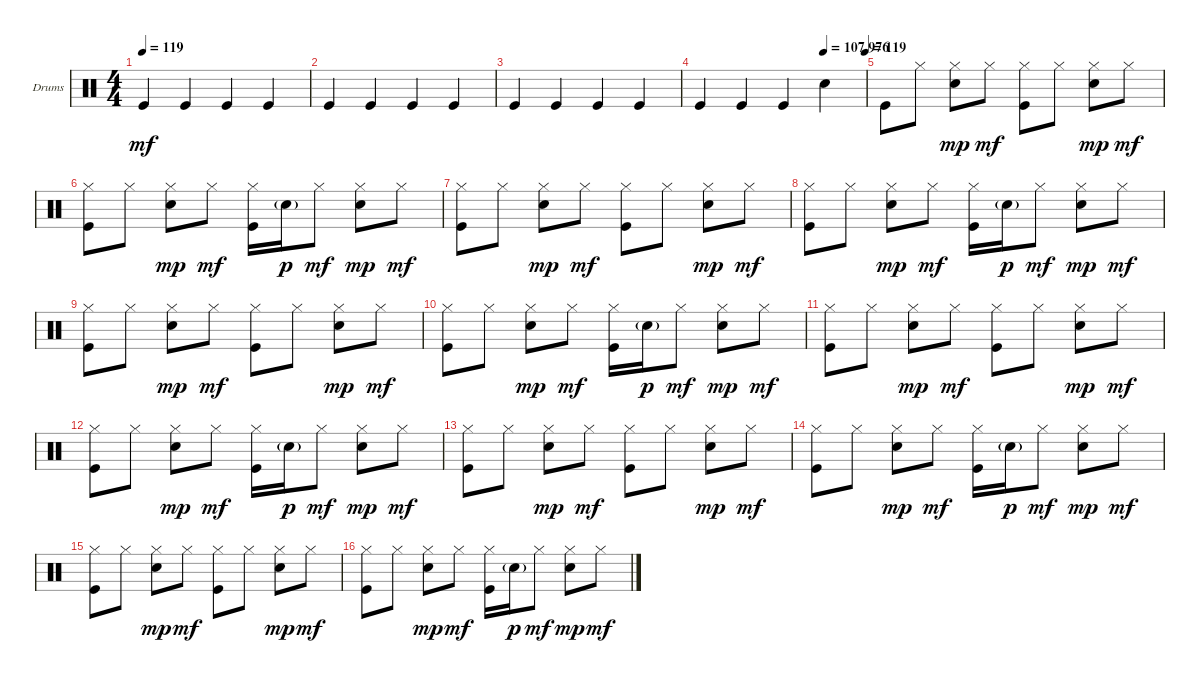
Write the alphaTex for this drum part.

\defaultSystemsLayout 4
\bracketExtendMode groupsimilarinstruments
\firstSystemTrackNameOrientation horizontal
\otherSystemsTrackNameOrientation horizontal
\track ("Drumkit" "Drums") {instrument percussion}
\staff {score}
\articulation defaults
\ts (4 4)
\tempo 119
\clef neutral
\ks c "Kick (hit)".4{dy mf} "Kick (hit)".4 "Kick (hit)".4 "Kick (hit)".4
|
"Kick (hit)".4 "Kick (hit)".4 "Kick (hit)".4 "Kick (hit)".4 |
"Kick (hit)".4 "Kick (hit)".4 "Kick (hit)".4 "Kick (hit)".4 |
\tempo (107.976 0.75)
\tempo (119 1)
"Kick (hit)".4 "Kick (hit)".4 "Kick (hit)".4 "Snare (hit) 2".4 |
"Kick (hit)".8 "Hi-Hat (closed)".8 ("Hi-Hat (closed)" "Snare (hit) 2").8{dy mp} "Hi-Hat (closed)".8{dy mf} ("Hi-Hat (closed)" "Kick (hit)").8 "Hi-Hat (closed)".8 ("Hi-Hat (closed)" "Snare (hit) 2").8{dy mp} "Hi-Hat (closed)".8{dy mf} |
("Kick (hit)" "Hi-Hat (closed)").8 "Hi-Hat (closed)".8 ("Hi-Hat (closed)" "Snare (hit) 2").8{dy mp} "Hi-Hat (closed)".8{dy mf} ("Hi-Hat (closed)" "Kick (hit)").16 "Snare (hit) 2"{g}.16{dy p} "Hi-Hat (closed)".8{dy mf} ("Hi-Hat (closed)" "Snare (hit) 2").8{dy mp} "Hi-Hat (closed)".8{dy mf} |
("Kick (hit)" "Hi-Hat (closed)").8 "Hi-Hat (closed)".8 ("Hi-Hat (closed)" "Snare (hit) 2").8{dy mp} "Hi-Hat (closed)".8{dy mf} ("Hi-Hat (closed)" "Kick (hit)").8 "Hi-Hat (closed)".8 ("Hi-Hat (closed)" "Snare (hit) 2").8{dy mp} "Hi-Hat (closed)".8{dy mf} |
("Kick (hit)" "Hi-Hat (closed)").8 "Hi-Hat (closed)".8 ("Hi-Hat (closed)" "Snare (hit) 2").8{dy mp} "Hi-Hat (closed)".8{dy mf} ("Hi-Hat (closed)" "Kick (hit)").16 "Snare (hit) 2"{g}.16{dy p} "Hi-Hat (closed)".8{dy mf} ("Hi-Hat (closed)" "Snare (hit) 2").8{dy mp} "Hi-Hat (closed)".8{dy mf} |
("Kick (hit)" "Hi-Hat (closed)").8 "Hi-Hat (closed)".8 ("Hi-Hat (closed)" "Snare (hit) 2").8{dy mp} "Hi-Hat (closed)".8{dy mf} ("Hi-Hat (closed)" "Kick (hit)").8 "Hi-Hat (closed)".8 ("Hi-Hat (closed)" "Snare (hit) 2").8{dy mp} "Hi-Hat (closed)".8{dy mf} |
("Kick (hit)" "Hi-Hat (closed)").8 "Hi-Hat (closed)".8 ("Hi-Hat (closed)" "Snare (hit) 2").8{dy mp} "Hi-Hat (closed)".8{dy mf} ("Hi-Hat (closed)" "Kick (hit)").16 "Snare (hit) 2"{g}.16{dy p} "Hi-Hat (closed)".8{dy mf} ("Hi-Hat (closed)" "Snare (hit) 2").8{dy mp} "Hi-Hat (closed)".8{dy mf} |
("Kick (hit)" "Hi-Hat (closed)").8 "Hi-Hat (closed)".8 ("Hi-Hat (closed)" "Snare (hit) 2").8{dy mp} "Hi-Hat (closed)".8{dy mf} ("Hi-Hat (closed)" "Kick (hit)").8 "Hi-Hat (closed)".8 ("Hi-Hat (closed)" "Snare (hit) 2").8{dy mp} "Hi-Hat (closed)".8{dy mf} |
("Kick (hit)" "Hi-Hat (closed)").8 "Hi-Hat (closed)".8 ("Hi-Hat (closed)" "Snare (hit) 2").8{dy mp} "Hi-Hat (closed)".8{dy mf} ("Hi-Hat (closed)" "Kick (hit)").16 "Snare (hit) 2"{g}.16{dy p} "Hi-Hat (closed)".8{dy mf} ("Hi-Hat (closed)" "Snare (hit) 2").8{dy mp} "Hi-Hat (closed)".8{dy mf} |
("Kick (hit)" "Hi-Hat (closed)").8 "Hi-Hat (closed)".8 ("Hi-Hat (closed)" "Snare (hit) 2").8{dy mp} "Hi-Hat (closed)".8{dy mf} ("Hi-Hat (closed)" "Kick (hit)").8 "Hi-Hat (closed)".8 ("Hi-Hat (closed)" "Snare (hit) 2").8{dy mp} "Hi-Hat (closed)".8{dy mf} |
("Kick (hit)" "Hi-Hat (closed)").8 "Hi-Hat (closed)".8 ("Hi-Hat (closed)" "Snare (hit) 2").8{dy mp} "Hi-Hat (closed)".8{dy mf} ("Hi-Hat (closed)" "Kick (hit)").16 "Snare (hit) 2"{g}.16{dy p} "Hi-Hat (closed)".8{dy mf} ("Hi-Hat (closed)" "Snare (hit) 2").8{dy mp} "Hi-Hat (closed)".8{dy mf} |
("Kick (hit)" "Hi-Hat (closed)").8 "Hi-Hat (closed)".8 ("Hi-Hat (closed)" "Snare (hit) 2").8{dy mp} "Hi-Hat (closed)".8{dy mf} ("Hi-Hat (closed)" "Kick (hit)").8 "Hi-Hat (closed)".8 ("Hi-Hat (closed)" "Snare (hit) 2").8{dy mp} "Hi-Hat (closed)".8{dy mf} |
("Kick (hit)" "Hi-Hat (closed)").8 "Hi-Hat (closed)".8 ("Hi-Hat (closed)" "Snare (hit) 2").8{dy mp} "Hi-Hat (closed)".8{dy mf} ("Hi-Hat (closed)" "Kick (hit)").16 "Snare (hit) 2"{g}.16{dy p} "Hi-Hat (closed)".8{dy mf} ("Hi-Hat (closed)" "Snare (hit) 2").8{dy mp} "Hi-Hat (closed)".8{dy mf}
